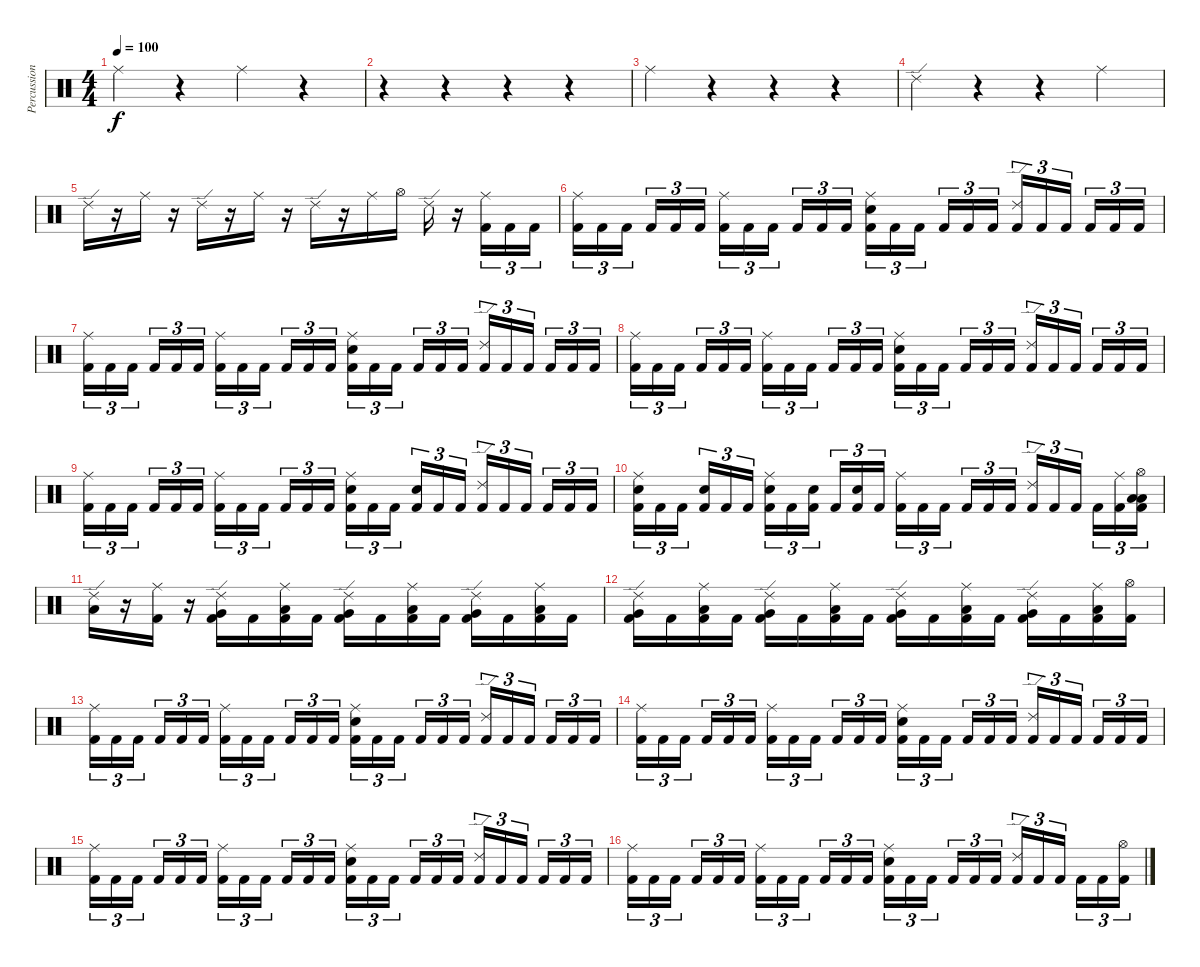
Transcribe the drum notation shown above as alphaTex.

\track ("Percussion" "Percussion") {instrument percussion}
\staff {score}
\articulation defaults
\ts (4 4)
\tempo 100
\clef neutral
\ks c "Ride (middle)".4{dy f}
r.4 "Ride (middle)".4 r.4 |
r.4 r.4 r.4 r.4 |
"Ride (middle)".4 r.4 r.4 r.4 |
"Ride (edge) 2".4 r.4 r.4 "Ride (middle)".4 |
"Ride (edge) 2".16{volume 12} r.16 "Ride (middle)".16 r.16 "Ride (edge) 2".16 r.16 "Ride (middle)".16 r.16 "Ride (edge) 2".16 r.16 "Ride (middle)".16 "Hi-Hat (open)".16 "Ride (edge) 2".16 r.16 ("Ride (middle)" "Kick (hit) 2").16{tu (3 2)} "Kick (hit) 2".16{tu (3 2)} "Kick (hit) 2".16{tu (3 2)} |
("Ride (middle)" "Kick (hit) 2").16{tu (3 2)} "Kick (hit) 2".16{tu (3 2)} "Kick (hit) 2".16{tu (3 2)} "Kick (hit) 2".16{tu (3 2)} "Kick (hit) 2".16{tu (3 2)} "Kick (hit) 2".16{tu (3 2)} ("Ride (middle)" "Kick (hit) 2").16{tu (3 2)} "Kick (hit) 2".16{tu (3 2)} "Kick (hit) 2".16{tu (3 2)} "Kick (hit) 2".16{tu (3 2)} "Kick (hit) 2".16{tu (3 2)} "Kick (hit) 2".16{tu (3 2)} ("Ride (middle)" "Electric Snare (hit)" "Kick (hit) 2").16{tu (3 2)} "Kick (hit) 2".16{tu (3 2)} "Kick (hit) 2".16{tu (3 2)} "Kick (hit) 2".16{tu (3 2)} "Kick (hit) 2".16{tu (3 2)} "Kick (hit) 2".16{tu (3 2)} ("Ride (edge) 2" "Kick (hit) 2").16{tu (3 2)} "Kick (hit) 2".16{tu (3 2)} "Kick (hit) 2".16{tu (3 2)} "Kick (hit) 2".16{tu (3 2)} "Kick (hit) 2".16{tu (3 2)} "Kick (hit) 2".16{tu (3 2)} |
("Ride (middle)" "Kick (hit) 2").16{tu (3 2)} "Kick (hit) 2".16{tu (3 2)} "Kick (hit) 2".16{tu (3 2)} "Kick (hit) 2".16{tu (3 2)} "Kick (hit) 2".16{tu (3 2)} "Kick (hit) 2".16{tu (3 2)} ("Ride (middle)" "Kick (hit) 2").16{tu (3 2)} "Kick (hit) 2".16{tu (3 2)} "Kick (hit) 2".16{tu (3 2)} "Kick (hit) 2".16{tu (3 2)} "Kick (hit) 2".16{tu (3 2)} "Kick (hit) 2".16{tu (3 2)} ("Ride (middle)" "Electric Snare (hit)" "Kick (hit) 2").16{tu (3 2)} "Kick (hit) 2".16{tu (3 2)} "Kick (hit) 2".16{tu (3 2)} "Kick (hit) 2".16{tu (3 2)} "Kick (hit) 2".16{tu (3 2)} "Kick (hit) 2".16{tu (3 2)} ("Ride (edge) 2" "Kick (hit) 2").16{tu (3 2)} "Kick (hit) 2".16{tu (3 2)} "Kick (hit) 2".16{tu (3 2)} "Kick (hit) 2".16{tu (3 2)} "Kick (hit) 2".16{tu (3 2)} "Kick (hit) 2".16{tu (3 2)} |
("Ride (middle)" "Kick (hit) 2").16{tu (3 2)} "Kick (hit) 2".16{tu (3 2)} "Kick (hit) 2".16{tu (3 2)} "Kick (hit) 2".16{tu (3 2)} "Kick (hit) 2".16{tu (3 2)} "Kick (hit) 2".16{tu (3 2)} ("Ride (middle)" "Kick (hit) 2").16{tu (3 2)} "Kick (hit) 2".16{tu (3 2)} "Kick (hit) 2".16{tu (3 2)} "Kick (hit) 2".16{tu (3 2)} "Kick (hit) 2".16{tu (3 2)} "Kick (hit) 2".16{tu (3 2)} ("Ride (middle)" "Electric Snare (hit)" "Kick (hit) 2").16{tu (3 2)} "Kick (hit) 2".16{tu (3 2)} "Kick (hit) 2".16{tu (3 2)} "Kick (hit) 2".16{tu (3 2)} "Kick (hit) 2".16{tu (3 2)} "Kick (hit) 2".16{tu (3 2)} ("Ride (edge) 2" "Kick (hit) 2").16{tu (3 2)} "Kick (hit) 2".16{tu (3 2)} "Kick (hit) 2".16{tu (3 2)} "Kick (hit) 2".16{tu (3 2)} "Kick (hit) 2".16{tu (3 2)} "Kick (hit) 2".16{tu (3 2)} |
("Ride (middle)" "Kick (hit) 2").16{tu (3 2)} "Kick (hit) 2".16{tu (3 2)} "Kick (hit) 2".16{tu (3 2)} "Kick (hit) 2".16{tu (3 2)} "Kick (hit) 2".16{tu (3 2)} "Kick (hit) 2".16{tu (3 2)} ("Ride (middle)" "Kick (hit) 2").16{tu (3 2)} "Kick (hit) 2".16{tu (3 2)} "Kick (hit) 2".16{tu (3 2)} "Kick (hit) 2".16{tu (3 2)} "Kick (hit) 2".16{tu (3 2)} "Kick (hit) 2".16{tu (3 2)} ("Ride (middle)" "Electric Snare (hit)" "Kick (hit) 2").16{tu (3 2)} "Kick (hit) 2".16{tu (3 2)} "Kick (hit) 2".16{tu (3 2)} ("Electric Snare (hit)" "Kick (hit) 2").16{tu (3 2)} "Kick (hit) 2".16{tu (3 2)} "Kick (hit) 2".16{tu (3 2)} ("Ride (edge) 2" "Kick (hit) 2").16{tu (3 2)} "Kick (hit) 2".16{tu (3 2)} "Kick (hit) 2".16{tu (3 2)} "Kick (hit) 2".16{tu (3 2)} "Kick (hit) 2".16{tu (3 2)} "Kick (hit) 2".16{tu (3 2)} |
("Ride (middle)" "Electric Snare (hit)" "Kick (hit) 2").16{tu (3 2)} "Kick (hit) 2".16{tu (3 2)} "Kick (hit) 2".16{tu (3 2)} ("Electric Snare (hit)" "Kick (hit) 2").16{tu (3 2)} "Kick (hit) 2".16{tu (3 2)} "Kick (hit) 2".16{tu (3 2)} ("Ride (middle)" "Electric Snare (hit)" "Kick (hit) 2").16{tu (3 2)} "Kick (hit) 2".16{tu (3 2)} ("Electric Snare (hit)" "Kick (hit) 2").16{tu (3 2)} "Kick (hit) 2".16{tu (3 2)} ("Electric Snare (hit)" "Kick (hit) 2").16{tu (3 2)} "Kick (hit) 2".16{tu (3 2)} ("Ride (middle)" "Kick (hit) 2").16{tu (3 2)} "Kick (hit) 2".16{tu (3 2)} "Kick (hit) 2".16{tu (3 2)} "Kick (hit) 2".16{tu (3 2)} "Kick (hit) 2".16{tu (3 2)} "Kick (hit) 2".16{tu (3 2)} ("Ride (edge) 2" "Kick (hit) 2").16{tu (3 2)} "Kick (hit) 2".16{tu (3 2)} "Kick (hit) 2".16{tu (3 2)} "Kick (hit) 2".16{tu (3 2)} ("Ride (middle)" "Kick (hit) 2").16{tu (3 2)} ("Hi-Hat (open)" "Low Tom (hit)" "Low Tom (hit)" "Kick (hit) 2").16{tu (3 2)} |
("Ride (edge) 2" "Low Tom (hit)").16 r.16 ("Ride (middle)" "Kick (hit) 2").16 r.16 ("Ride (edge) 2" "Very Low Tom (hit)" "Kick (hit) 2").16 "Kick (hit) 2".16 ("Ride (middle)" "Low Tom (hit)" "Kick (hit) 2").16 "Kick (hit) 2".16 ("Ride (edge) 2" "Very Low Tom (hit)" "Kick (hit) 2").16 "Kick (hit) 2".16 ("Ride (middle)" "Low Tom (hit)" "Kick (hit) 2").16 "Kick (hit) 2".16 ("Ride (edge) 2" "Very Low Tom (hit)" "Kick (hit) 2").16 "Kick (hit) 2".16 ("Ride (middle)" "Low Tom (hit)" "Kick (hit) 2").16 "Kick (hit) 2".16 |
("Ride (edge) 2" "Very Low Tom (hit)" "Kick (hit) 2").16 "Kick (hit) 2".16 ("Ride (middle)" "Low Tom (hit)" "Kick (hit) 2").16 "Kick (hit) 2".16 ("Ride (edge) 2" "Very Low Tom (hit)" "Kick (hit) 2").16 "Kick (hit) 2".16 ("Ride (middle)" "Low Tom (hit)" "Kick (hit) 2").16 "Kick (hit) 2".16 ("Ride (edge) 2" "Very Low Tom (hit)" "Kick (hit) 2").16 "Kick (hit) 2".16 ("Ride (middle)" "Low Tom (hit)" "Kick (hit) 2").16 "Kick (hit) 2".16 ("Ride (edge) 2" "Very Low Tom (hit)" "Kick (hit) 2").16 "Kick (hit) 2".16 ("Ride (middle)" "Low Tom (hit)" "Kick (hit) 2").16 ("Hi-Hat (open)" "Kick (hit) 2").16 |
("Ride (middle)" "Kick (hit) 2").16{tu (3 2)} "Kick (hit) 2".16{tu (3 2)} "Kick (hit) 2".16{tu (3 2)} "Kick (hit) 2".16{tu (3 2)} "Kick (hit) 2".16{tu (3 2)} "Kick (hit) 2".16{tu (3 2)} ("Ride (middle)" "Kick (hit) 2").16{tu (3 2)} "Kick (hit) 2".16{tu (3 2)} "Kick (hit) 2".16{tu (3 2)} "Kick (hit) 2".16{tu (3 2)} "Kick (hit) 2".16{tu (3 2)} "Kick (hit) 2".16{tu (3 2)} ("Ride (middle)" "Electric Snare (hit)" "Kick (hit) 2").16{tu (3 2)} "Kick (hit) 2".16{tu (3 2)} "Kick (hit) 2".16{tu (3 2)} "Kick (hit) 2".16{tu (3 2)} "Kick (hit) 2".16{tu (3 2)} "Kick (hit) 2".16{tu (3 2)} ("Ride (edge) 2" "Kick (hit) 2").16{tu (3 2)} "Kick (hit) 2".16{tu (3 2)} "Kick (hit) 2".16{tu (3 2)} "Kick (hit) 2".16{tu (3 2)} "Kick (hit) 2".16{tu (3 2)} "Kick (hit) 2".16{tu (3 2)} |
("Ride (middle)" "Kick (hit) 2").16{tu (3 2)} "Kick (hit) 2".16{tu (3 2)} "Kick (hit) 2".16{tu (3 2)} "Kick (hit) 2".16{tu (3 2)} "Kick (hit) 2".16{tu (3 2)} "Kick (hit) 2".16{tu (3 2)} ("Ride (middle)" "Kick (hit) 2").16{tu (3 2)} "Kick (hit) 2".16{tu (3 2)} "Kick (hit) 2".16{tu (3 2)} "Kick (hit) 2".16{tu (3 2)} "Kick (hit) 2".16{tu (3 2)} "Kick (hit) 2".16{tu (3 2)} ("Ride (middle)" "Electric Snare (hit)" "Kick (hit) 2").16{tu (3 2)} "Kick (hit) 2".16{tu (3 2)} "Kick (hit) 2".16{tu (3 2)} "Kick (hit) 2".16{tu (3 2)} "Kick (hit) 2".16{tu (3 2)} "Kick (hit) 2".16{tu (3 2)} ("Ride (edge) 2" "Kick (hit) 2").16{tu (3 2)} "Kick (hit) 2".16{tu (3 2)} "Kick (hit) 2".16{tu (3 2)} "Kick (hit) 2".16{tu (3 2)} "Kick (hit) 2".16{tu (3 2)} "Kick (hit) 2".16{tu (3 2)} |
("Ride (middle)" "Kick (hit) 2").16{tu (3 2)} "Kick (hit) 2".16{tu (3 2)} "Kick (hit) 2".16{tu (3 2)} "Kick (hit) 2".16{tu (3 2)} "Kick (hit) 2".16{tu (3 2)} "Kick (hit) 2".16{tu (3 2)} ("Ride (middle)" "Kick (hit) 2").16{tu (3 2)} "Kick (hit) 2".16{tu (3 2)} "Kick (hit) 2".16{tu (3 2)} "Kick (hit) 2".16{tu (3 2)} "Kick (hit) 2".16{tu (3 2)} "Kick (hit) 2".16{tu (3 2)} ("Ride (middle)" "Electric Snare (hit)" "Kick (hit) 2").16{tu (3 2)} "Kick (hit) 2".16{tu (3 2)} "Kick (hit) 2".16{tu (3 2)} "Kick (hit) 2".16{tu (3 2)} "Kick (hit) 2".16{tu (3 2)} "Kick (hit) 2".16{tu (3 2)} ("Ride (edge) 2" "Kick (hit) 2").16{tu (3 2)} "Kick (hit) 2".16{tu (3 2)} "Kick (hit) 2".16{tu (3 2)} "Kick (hit) 2".16{tu (3 2)} "Kick (hit) 2".16{tu (3 2)} "Kick (hit) 2".16{tu (3 2)} |
("Ride (middle)" "Kick (hit) 2").16{tu (3 2)} "Kick (hit) 2".16{tu (3 2)} "Kick (hit) 2".16{tu (3 2)} "Kick (hit) 2".16{tu (3 2)} "Kick (hit) 2".16{tu (3 2)} "Kick (hit) 2".16{tu (3 2)} ("Ride (middle)" "Kick (hit) 2").16{tu (3 2)} "Kick (hit) 2".16{tu (3 2)} "Kick (hit) 2".16{tu (3 2)} "Kick (hit) 2".16{tu (3 2)} "Kick (hit) 2".16{tu (3 2)} "Kick (hit) 2".16{tu (3 2)} ("Ride (middle)" "Electric Snare (hit)" "Kick (hit) 2").16{tu (3 2)} "Kick (hit) 2".16{tu (3 2)} "Kick (hit) 2".16{tu (3 2)} "Kick (hit) 2".16{tu (3 2)} "Kick (hit) 2".16{tu (3 2)} "Kick (hit) 2".16{tu (3 2)} ("Ride (edge) 2" "Kick (hit) 2").16{tu (3 2)} "Kick (hit) 2".16{tu (3 2)} "Kick (hit) 2".16{tu (3 2)} "Kick (hit) 2".16{tu (3 2)} "Kick (hit) 2".16{tu (3 2)} ("Hi-Hat (open)" "Kick (hit) 2").16{tu (3 2)}
